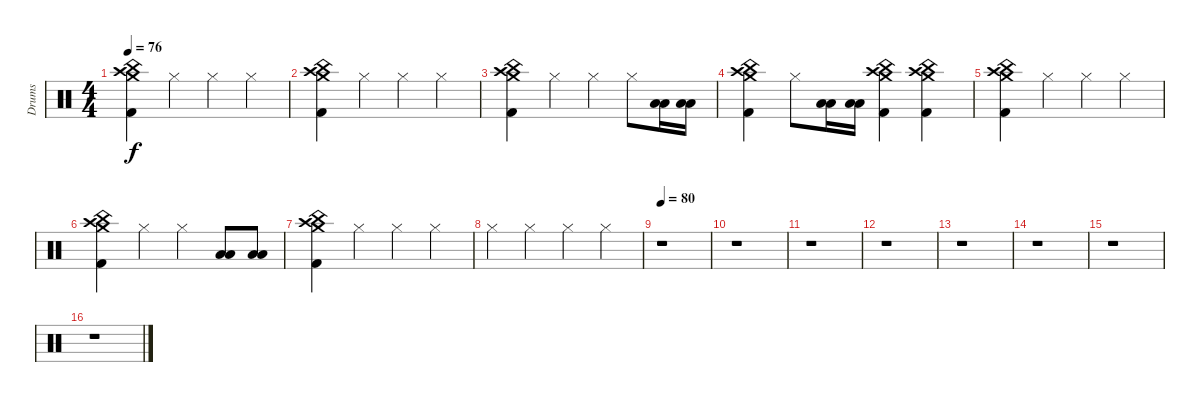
\track ("Drums" "Drums") {instrument percussion}
\staff {score}
\articulation defaults
\ts (4 4)
\tempo 76
\clef neutral
\ks c
("Crash medium (hit)" "Crash high (hit)" "China (hit)" "Kick (hit) 2").4{dy f} "Hi-Hat (closed)".4 "Hi-Hat (closed)".4 "Hi-Hat (closed)".4 |
("Crash medium (hit)" "Crash high (hit)" "China (hit)" "Kick (hit) 2").4 "Hi-Hat (closed)".4 "Hi-Hat (closed)".4 "Hi-Hat (closed)".4 |
("Crash medium (hit)" "Crash high (hit)" "China (hit)" "Kick (hit) 2").4 "Hi-Hat (closed)".4 "Hi-Hat (closed)".4 "Hi-Hat (closed)".8 ("Low Tom (hit)" "Low Floor Tom (hit)").16 ("Low Tom (hit)" "Low Floor Tom (hit)").16 |
("Crash medium (hit)" "Crash high (hit)" "China (hit)" "Kick (hit) 2").4 "Hi-Hat (closed)".8 ("Low Tom (hit)" "Low Floor Tom (hit)").16 ("Low Tom (hit)" "Low Floor Tom (hit)").16 ("Crash medium (hit)" "Crash high (hit)" "China (hit)" "Kick (hit) 2").4 ("Crash medium (hit)" "Crash high (hit)" "China (hit)" "Kick (hit) 2").4 |
("Crash medium (hit)" "Crash high (hit)" "China (hit)" "Kick (hit) 2").4 "Hi-Hat (closed)".4 "Hi-Hat (closed)".4 "Hi-Hat (closed)".4 |
("Crash medium (hit)" "Crash high (hit)" "China (hit)" "Kick (hit) 2").4 "Hi-Hat (closed)".4 "Hi-Hat (closed)".4 ("Low Tom (hit)" "Low Floor Tom (hit)").8 ("Low Tom (hit)" "Low Floor Tom (hit)").8 |
("Crash medium (hit)" "Crash high (hit)" "China (hit)" "Kick (hit) 2").4 "Hi-Hat (closed)".4 "Hi-Hat (closed)".4 "Hi-Hat (closed)".4 |
"Hi-Hat (closed)".4 "Hi-Hat (closed)".4 "Hi-Hat (closed)".4 "Hi-Hat (closed)".4 |
\tempo 80
r.1 |
r.1 |
r.1 |
r.1 |
r.1 |
r.1 |
r.1 |
r.1
